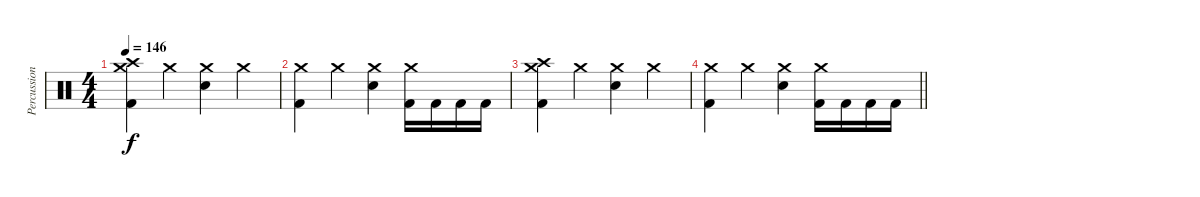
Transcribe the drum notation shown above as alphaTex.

\track ("Percussion" "Percussion") {instrument percussion}
\staff {score}
\articulation defaults
\ts (4 4)
\tempo 146
\clef neutral
\ks c
("Crash high (hit)" "Crash medium (hit)" "Kick (hit) 2").4{dy f} "Crash medium (hit)".4 ("Crash medium (hit)" "Snare (hit) 2").4 "Crash medium (hit)".4 |
("Crash medium (hit)" "Kick (hit) 2").4 "Crash medium (hit)".4 ("Crash medium (hit)" "Snare (hit) 2").4 ("Crash medium (hit)" "Kick (hit) 2").16 "Kick (hit) 2".16 "Kick (hit) 2".16 "Kick (hit) 2".16 |
("Crash high (hit)" "Crash medium (hit)" "Kick (hit) 2").4 "Crash medium (hit)".4 ("Crash medium (hit)" "Snare (hit) 2").4 "Crash medium (hit)".4 |
\barLineRight lightlight
("Crash medium (hit)" "Kick (hit) 2").4 "Crash medium (hit)".4 ("Crash medium (hit)" "Snare (hit) 2").4 ("Crash medium (hit)" "Kick (hit) 2").16 "Kick (hit) 2".16 "Kick (hit) 2".16 "Kick (hit) 2".16
